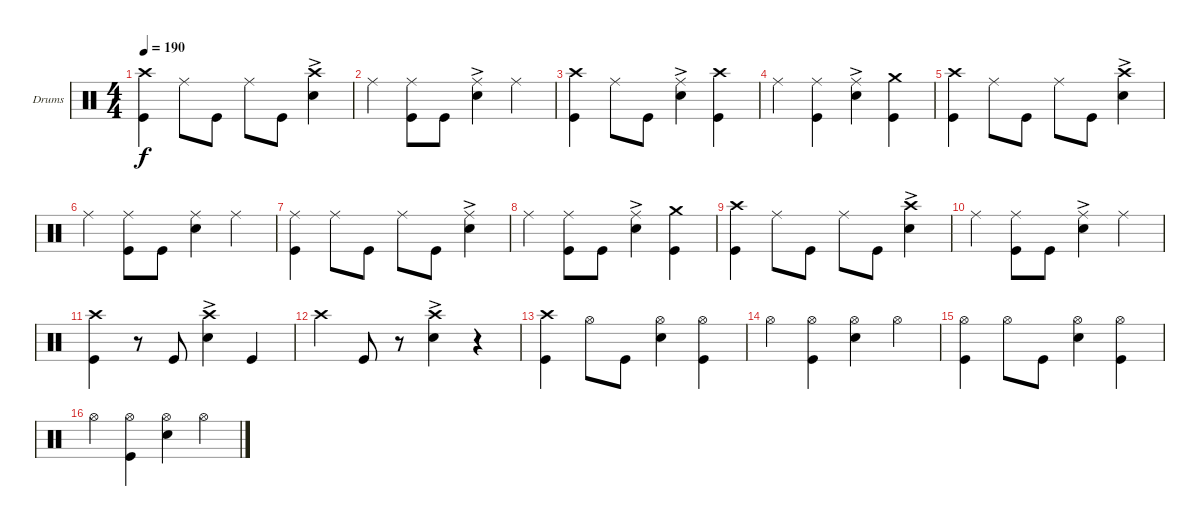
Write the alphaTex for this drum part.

\defaultSystemsLayout 4
\bracketExtendMode groupsimilarinstruments
\firstSystemTrackNameOrientation horizontal
\otherSystemsTrackNameOrientation horizontal
\track ("Drumkit" "Drums") {instrument percussion}
\staff {score}
\articulation defaults
\ts (4 4)
\tempo 190
\clef neutral
\ks c
("Kick (hit)" "Crash high (hit)").4{dy f} "Ride (middle)".8 "Kick (hit)".8 "Ride (middle)".8 "Kick (hit)".8 ("Snare (hit) 2"{ac} "Crash high (hit)").4 |
"Ride (middle)".4 ("Kick (hit)" "Ride (middle)").8 "Kick (hit)".8 ("Snare (hit) 2"{ac} "Ride (middle)").4 "Ride (middle)".4 |
("Kick (hit)" "Crash high (hit)").4 "Ride (middle)".8 "Kick (hit)".8 ("Ride (middle)" "Snare (hit) 2"{ac}).4 ("Kick (hit)" "Crash high (hit)").4 |
"Ride (middle)".4 ("Kick (hit)" "Ride (middle)").4 ("Snare (hit) 2"{ac} "Ride (middle)").4 ("Kick (hit)" "Crash medium (hit)").4 |
("Kick (hit)" "Crash high (hit)").4 "Ride (middle)".8 "Kick (hit)".8 "Ride (middle)".8 "Kick (hit)".8 ("Snare (hit) 2"{ac} "Crash high (hit)").4 |
"Ride (middle)".4 ("Kick (hit)" "Ride (middle)").8 "Kick (hit)".8 ("Snare (hit) 2" "Ride (middle)").4 "Ride (middle)".4 |
("Kick (hit)" "Ride (middle)").4 "Ride (middle)".8 "Kick (hit)".8 "Ride (middle)".8 "Kick (hit)".8 ("Snare (hit) 2"{ac} "Ride (middle)").4 |
"Ride (middle)".4 ("Kick (hit)" "Ride (middle)").8 "Kick (hit)".8 ("Snare (hit) 2"{ac} "Ride (middle)").4 ("Kick (hit)" "Crash medium (hit)").4 |
("Kick (hit)" "Crash high (hit)").4 "Ride (middle)".8 "Kick (hit)".8 "Ride (middle)".8 "Kick (hit)".8 ("Snare (hit) 2"{ac} "Crash high (hit)").4 |
"Ride (middle)".4 ("Kick (hit)" "Ride (middle)").8 "Kick (hit)".8 ("Snare (hit) 2"{ac} "Ride (middle)").4 "Ride (middle)".4 |
("Kick (hit)" "Crash high (hit)").4 r.8 "Kick (hit)".8 ("Snare (hit) 2"{ac} "Crash high (hit)").4 "Kick (hit)".4 |
"Crash high (hit)".4 "Kick (hit)".8 r.8 ("Snare (hit) 2"{ac} "Crash high (hit)").4 r.4 |
("Kick (hit)" "Crash high (hit)").4 "Hi-Hat (open)".8 "Kick (hit)".8 ("Snare (hit) 2" "Hi-Hat (open)").4 ("Kick (hit)" "Hi-Hat (open)").4 |
"Hi-Hat (open)".4 ("Kick (hit)" "Hi-Hat (open)").4 ("Snare (hit) 2" "Hi-Hat (open)").4 "Hi-Hat (open)".4 |
("Kick (hit)" "Hi-Hat (open)").4 "Hi-Hat (open)".8 "Kick (hit)".8 ("Snare (hit) 2" "Hi-Hat (open)").4 ("Kick (hit)" "Hi-Hat (open)").4 |
"Hi-Hat (open)".4 ("Kick (hit)" "Hi-Hat (open)").4 ("Snare (hit) 2" "Hi-Hat (open)").4 "Hi-Hat (open)".4
